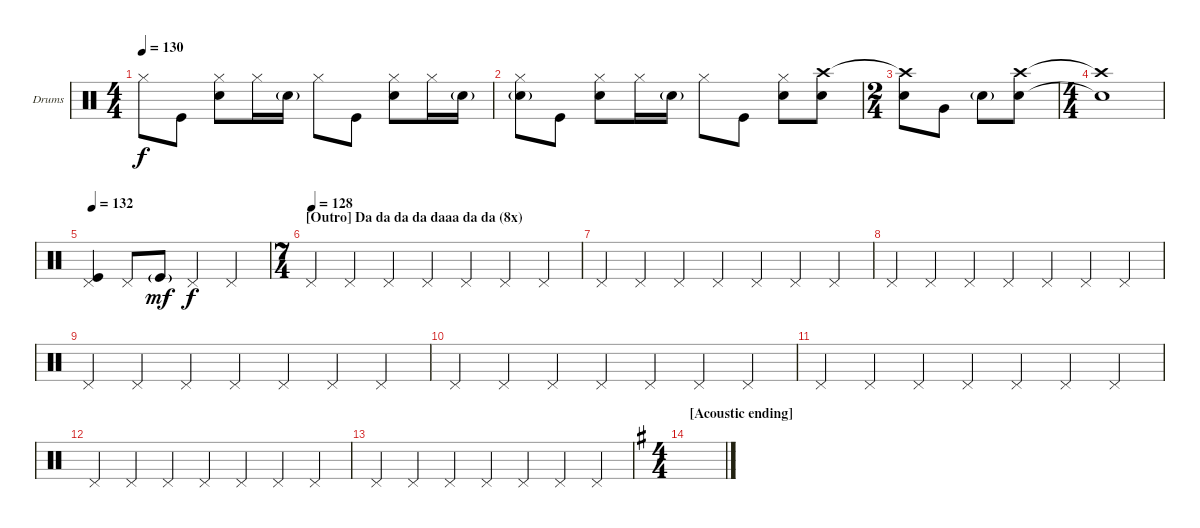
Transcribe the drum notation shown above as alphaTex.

\bracketExtendMode groupsimilarinstruments
\firstSystemTrackNameOrientation horizontal
\otherSystemsTrackNameOrientation horizontal
\track ("Drumkit" "Drums") {instrument percussion}
\staff {score}
\articulation defaults
\ts (4 4)
\tempo 130
\clef neutral
\ks aminor "Hi-Hat (closed)".8{dy f} "Kick (hit)".8
("Hi-Hat (closed)" "Snare (hit) 2").8 "Hi-Hat (closed)".16 "Snare (hit) 2"{g}.16 "Hi-Hat (closed)".8 "Kick (hit)".8 ("Hi-Hat (closed)" "Snare (hit) 2").8 "Hi-Hat (closed)".16 "Snare (hit) 2"{g}.16 |
("Hi-Hat (closed)" "Snare (hit) 2"{g}).8 "Kick (hit)".8 ("Hi-Hat (closed)" "Snare (hit) 2").8 "Hi-Hat (closed)".16 "Snare (hit) 2"{g}.16 "Hi-Hat (closed)".8 "Kick (hit)".8 ("Hi-Hat (closed)" "Snare (hit) 2").8 ("Snare (hit) 2" "Crash high (hit)").8 |
\ts (2 4)
("Snare (hit) 2" "Crash high (hit)"{t}).8 "Very Low Tom (hit)".8 "Snare (hit) 2"{g}.8 ("Crash high (hit)" "Snare (hit) 2").8 |
\ts (4 4)
("Crash high (hit)"{t} "Snare (hit) 2"{t}).1 |
\tempo 132
("Pedal Hi-Hat (hit)" "Kick (hit)").4 "Pedal Hi-Hat (hit)".8 "Kick (hit)"{g}.8{dy mf} "Pedal Hi-Hat (hit)".4{dy f} "Pedal Hi-Hat (hit)".4 |
\ts (7 4)
\section ("" "[Outro] Da da da da daaa da da (8x) ")
\tempo (128 0.00625)
"Pedal Hi-Hat (hit)".4 "Pedal Hi-Hat (hit)".4 "Pedal Hi-Hat (hit)".4 "Pedal Hi-Hat (hit)".4 "Pedal Hi-Hat (hit)".4 "Pedal Hi-Hat (hit)".4 "Pedal Hi-Hat (hit)".4 |
"Pedal Hi-Hat (hit)".4 "Pedal Hi-Hat (hit)".4 "Pedal Hi-Hat (hit)".4 "Pedal Hi-Hat (hit)".4 "Pedal Hi-Hat (hit)".4 "Pedal Hi-Hat (hit)".4 "Pedal Hi-Hat (hit)".4 |
"Pedal Hi-Hat (hit)".4 "Pedal Hi-Hat (hit)".4 "Pedal Hi-Hat (hit)".4 "Pedal Hi-Hat (hit)".4 "Pedal Hi-Hat (hit)".4 "Pedal Hi-Hat (hit)".4 "Pedal Hi-Hat (hit)".4 |
"Pedal Hi-Hat (hit)".4 "Pedal Hi-Hat (hit)".4 "Pedal Hi-Hat (hit)".4 "Pedal Hi-Hat (hit)".4 "Pedal Hi-Hat (hit)".4 "Pedal Hi-Hat (hit)".4 "Pedal Hi-Hat (hit)".4 |
"Pedal Hi-Hat (hit)".4 "Pedal Hi-Hat (hit)".4 "Pedal Hi-Hat (hit)".4 "Pedal Hi-Hat (hit)".4 "Pedal Hi-Hat (hit)".4 "Pedal Hi-Hat (hit)".4 "Pedal Hi-Hat (hit)".4 |
"Pedal Hi-Hat (hit)".4 "Pedal Hi-Hat (hit)".4 "Pedal Hi-Hat (hit)".4 "Pedal Hi-Hat (hit)".4 "Pedal Hi-Hat (hit)".4 "Pedal Hi-Hat (hit)".4 "Pedal Hi-Hat (hit)".4 |
"Pedal Hi-Hat (hit)".4 "Pedal Hi-Hat (hit)".4 "Pedal Hi-Hat (hit)".4 "Pedal Hi-Hat (hit)".4 "Pedal Hi-Hat (hit)".4 "Pedal Hi-Hat (hit)".4 "Pedal Hi-Hat (hit)".4 |
"Pedal Hi-Hat (hit)".4 "Pedal Hi-Hat (hit)".4 "Pedal Hi-Hat (hit)".4 "Pedal Hi-Hat (hit)".4 "Pedal Hi-Hat (hit)".4 "Pedal Hi-Hat (hit)".4 "Pedal Hi-Hat (hit)".4 |
\ts (4 4)
\section ("" "[Acoustic ending]")
\ks eminor
